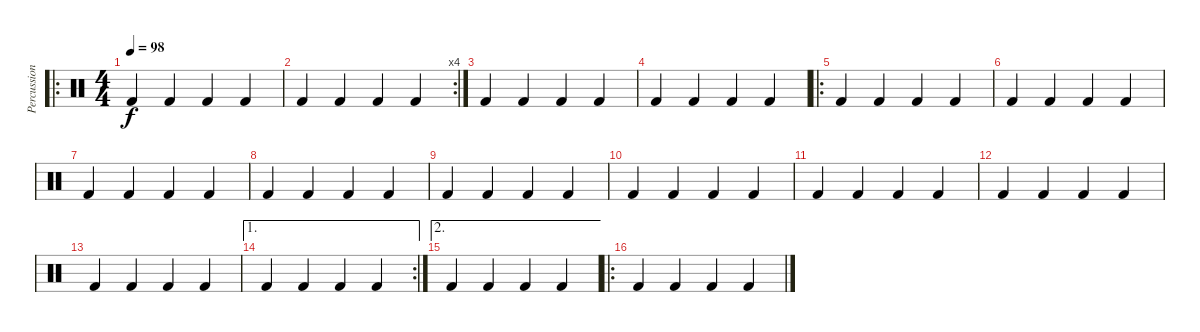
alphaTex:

\track ("Percussion" "Percussion") {instrument percussion}
\staff {score}
\articulation defaults
\ro
\ts (4 4)
\tempo 98
\clef neutral
\ks c "Kick (hit) 2".4{dy f} "Kick (hit) 2".4 "Kick (hit) 2".4 "Kick (hit) 2".4
|
\rc 4 "Kick (hit) 2".4 "Kick (hit) 2".4 "Kick (hit) 2".4 "Kick (hit) 2".4
|
"Kick (hit) 2".4 "Kick (hit) 2".4 "Kick (hit) 2".4 "Kick (hit) 2".4 |
"Kick (hit) 2".4 "Kick (hit) 2".4 "Kick (hit) 2".4 "Kick (hit) 2".4 |
\ro "Kick (hit) 2".4 "Kick (hit) 2".4 "Kick (hit) 2".4 "Kick (hit) 2".4
|
"Kick (hit) 2".4 "Kick (hit) 2".4 "Kick (hit) 2".4 "Kick (hit) 2".4 |
"Kick (hit) 2".4 "Kick (hit) 2".4 "Kick (hit) 2".4 "Kick (hit) 2".4 |
"Kick (hit) 2".4 "Kick (hit) 2".4 "Kick (hit) 2".4 "Kick (hit) 2".4 |
"Kick (hit) 2".4 "Kick (hit) 2".4 "Kick (hit) 2".4 "Kick (hit) 2".4 |
"Kick (hit) 2".4 "Kick (hit) 2".4 "Kick (hit) 2".4 "Kick (hit) 2".4 |
"Kick (hit) 2".4 "Kick (hit) 2".4 "Kick (hit) 2".4 "Kick (hit) 2".4 |
"Kick (hit) 2".4 "Kick (hit) 2".4 "Kick (hit) 2".4 "Kick (hit) 2".4 |
"Kick (hit) 2".4 "Kick (hit) 2".4 "Kick (hit) 2".4 "Kick (hit) 2".4 |
\ae 1
\rc 2 "Kick (hit) 2".4 "Kick (hit) 2".4 "Kick (hit) 2".4 "Kick (hit) 2".4
|
\ae 2 "Kick (hit) 2".4 "Kick (hit) 2".4 "Kick (hit) 2".4 "Kick (hit) 2".4
|
\ro "Kick (hit) 2".4 "Kick (hit) 2".4 "Kick (hit) 2".4 "Kick (hit) 2".4
